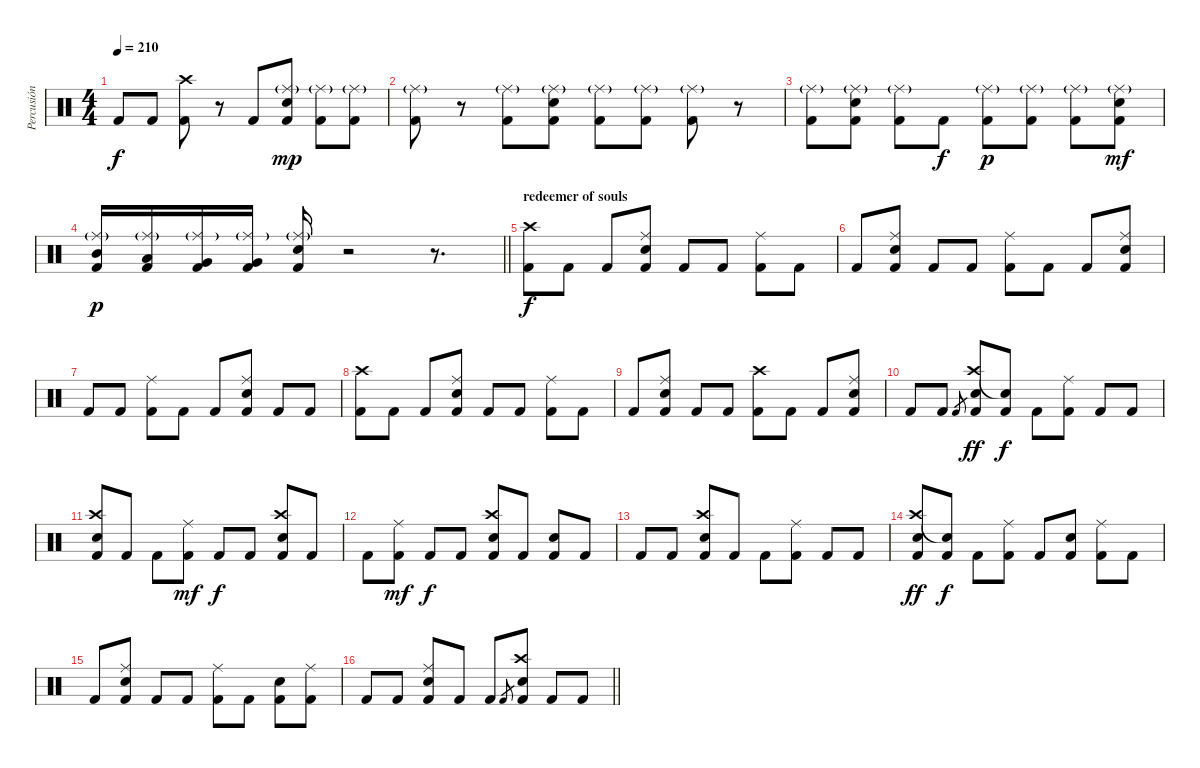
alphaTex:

\track ("Percusión" "Percusión") {instrument percussion}
\staff {score}
\articulation defaults
\ts (4 4)
\tempo 210
\clef neutral
\ks c "Kick (hit) 2".8{dy f} "Kick (hit) 2".8
("Crash high (hit)" "Kick (hit) 2").8 r.8 "Kick (hit) 2".8 ("Ride (middle)"{g} "Snare (hit) 2" "Kick (hit) 2").8{dy mp} ("Ride (middle)"{g} "Kick (hit) 2").8 ("Ride (middle)"{g} "Kick (hit) 2").8 |
("Ride (middle)"{g} "Kick (hit) 2").8 r.8 ("Ride (middle)"{g} "Kick (hit) 2").8 ("Ride (middle)"{g} "Snare (hit) 2" "Kick (hit) 2").8 ("Ride (middle)"{g} "Kick (hit) 2").8 ("Ride (middle)"{g} "Kick (hit) 2").8 ("Ride (middle)"{g} "Kick (hit) 2").8 r.8 |
("Ride (middle)"{g} "Kick (hit) 2").8 ("Ride (middle)"{g} "Snare (hit) 2" "Kick (hit) 2").8 ("Ride (middle)"{g} "Kick (hit) 2").8 "Kick (hit) 2".8{dy f} ("Ride (middle)"{g} "Kick (hit) 2").8{dy p} ("Ride (middle)"{g} "Kick (hit) 2").8 ("Ride (middle)"{g} "Kick (hit) 2").8 ("Ride (middle)"{g} "Electric Snare (hit)" "Kick (hit) 2").8{dy mf} |
\barLineRight lightlight
("Ride (middle)"{g} "Mid Tom (hit)" "Kick (hit) 2").16{dy p} ("Ride (middle)"{g} "Low Tom (hit)" "Kick (hit) 2").16 ("Ride (middle)"{g} "Very Low Tom (hit)" "Kick (hit) 2").16 ("Ride (middle)"{g} "Very Low Tom (hit)" "Kick (hit) 2").16 ("Ride (middle)"{g} "Snare (hit) 2" "Kick (hit) 2").16 r.2 r.8{d} |
\section ("" "redeemer of souls ")
("Crash high (hit)" "Kick (hit) 2").8{dy f} "Kick (hit) 2".8 "Kick (hit) 2".8 ("Ride (middle)" "Snare (hit) 2" "Kick (hit) 2").8 "Kick (hit) 2".8 "Kick (hit) 2".8 ("Ride (middle)" "Kick (hit) 2").8 "Kick (hit) 2".8 |
"Kick (hit) 2".8 ("Ride (middle)" "Snare (hit) 2" "Kick (hit) 2").8 "Kick (hit) 2".8 "Kick (hit) 2".8 ("Ride (middle)" "Kick (hit) 2").8 "Kick (hit) 2".8 "Kick (hit) 2".8 ("Ride (middle)" "Snare (hit) 2" "Kick (hit) 2").8 |
"Kick (hit) 2".8 "Kick (hit) 2".8 ("Ride (middle)" "Kick (hit) 2").8 "Kick (hit) 2".8 "Kick (hit) 2".8 ("Ride (middle)" "Snare (hit) 2" "Kick (hit) 2").8 "Kick (hit) 2".8 "Kick (hit) 2".8 |
("Crash high (hit)" "Kick (hit) 2").8 "Kick (hit) 2".8 "Kick (hit) 2".8 ("Ride (middle)" "Snare (hit) 2" "Kick (hit) 2").8 "Kick (hit) 2".8 "Kick (hit) 2".8 ("Ride (middle)" "Kick (hit) 2").8 "Kick (hit) 2".8 |
"Kick (hit) 2".8 ("Ride (middle)" "Snare (hit) 2" "Kick (hit) 2").8 "Kick (hit) 2".8 "Kick (hit) 2".8 ("Crash high (hit)" "Kick (hit) 2").8 "Kick (hit) 2".8 "Kick (hit) 2".8 ("Ride (middle)" "Snare (hit) 2" "Kick (hit) 2").8 |
"Kick (hit) 2".8 "Kick (hit) 2".8 "Kick (hit) 2".8{gr} ("Crash high (hit)" "Snare (hit) 2" "Kick (hit) 2").8{dy ff} ("Snare (hit)"{t} "Kick (hit) 2").8{dy f} "Kick (hit) 2".8 ("Ride (middle)" "Kick (hit) 2").8 "Kick (hit) 2".8 "Kick (hit) 2".8 |
("Crash high (hit)" "Snare (hit) 2" "Kick (hit) 2").8 "Kick (hit) 2".8 "Kick (hit) 2".8 ("Ride (middle)" "Kick (hit) 2").8{dy mf} "Kick (hit) 2".8{dy f} "Kick (hit) 2".8 ("Crash high (hit)" "Snare (hit) 2" "Kick (hit) 2").8 "Kick (hit) 2".8 |
"Kick (hit) 2".8 ("Ride (middle)" "Kick (hit) 2").8{dy mf} "Kick (hit) 2".8{dy f} "Kick (hit) 2".8 ("Crash high (hit)" "Snare (hit) 2" "Kick (hit) 2").8 "Kick (hit) 2".8 ("Snare (hit) 2" "Kick (hit) 2").8 "Kick (hit) 2".8 |
"Kick (hit) 2".8 "Kick (hit) 2".8 ("Crash high (hit)" "Snare (hit) 2" "Kick (hit) 2").8 "Kick (hit) 2".8 "Kick (hit) 2".8 ("Ride (middle)" "Kick (hit) 2").8 "Kick (hit) 2".8 "Kick (hit) 2".8 |
("Crash high (hit)" "Snare (hit) 2" "Kick (hit) 2").8{dy ff} ("Snare (hit)"{t} "Kick (hit) 2").8{dy f} "Kick (hit) 2".8 ("Ride (middle)" "Kick (hit) 2").8 "Kick (hit) 2".8 ("Snare (hit) 2" "Kick (hit) 2").8 ("Ride (middle)" "Kick (hit) 2").8 "Kick (hit) 2".8 |
"Kick (hit) 2".8 ("Ride (middle)" "Snare (hit) 2" "Kick (hit) 2").8 "Kick (hit) 2".8 "Kick (hit) 2".8 ("Ride (middle)" "Kick (hit) 2").8 "Kick (hit) 2".8 ("Snare (hit) 2" "Kick (hit) 2").8 ("Ride (middle)" "Kick (hit) 2").8 |
\barLineRight lightlight "Kick (hit) 2".8 "Kick (hit) 2".8
("Ride (middle)" "Snare (hit) 2" "Kick (hit) 2").8 "Kick (hit) 2".8 "Kick (hit) 2".8 "Kick (hit) 2".8{gr} ("Crash high (hit)" "Snare (hit) 2" "Kick (hit) 2").8 "Kick (hit) 2".8 "Kick (hit) 2".8
